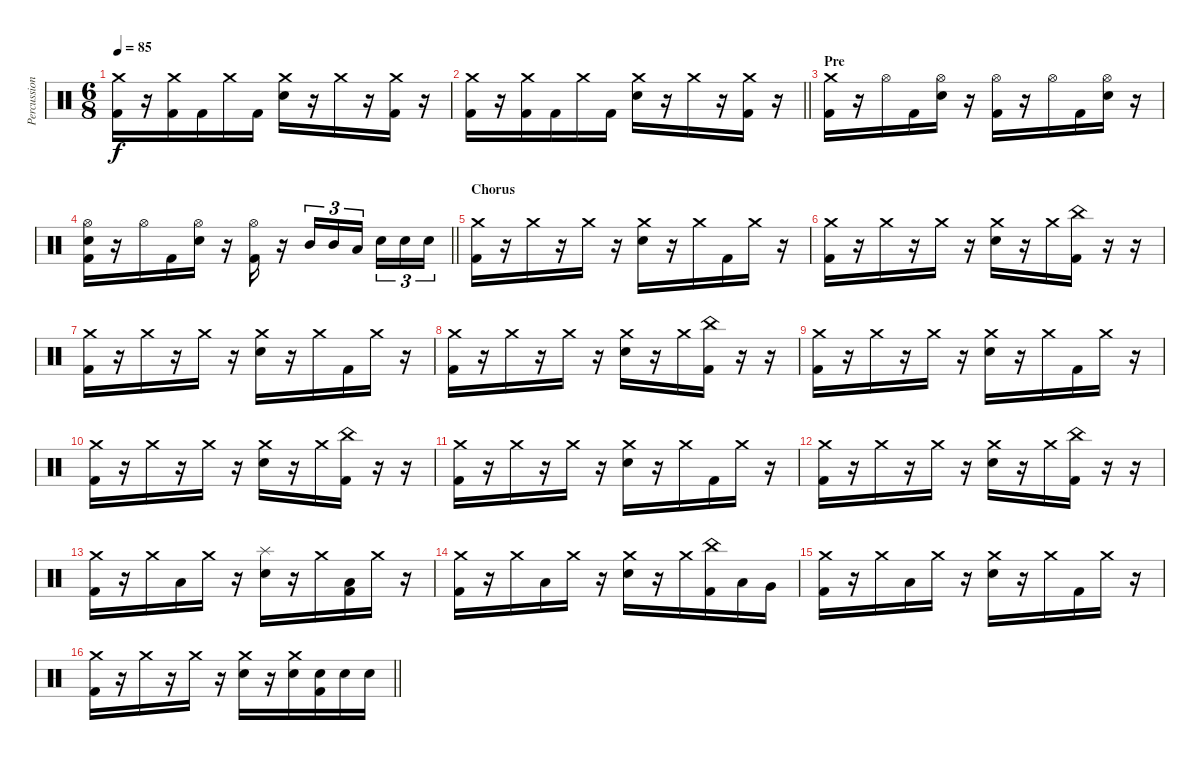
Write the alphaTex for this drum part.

\track ("Percussion" "Percussion") {instrument percussion}
\staff {score}
\articulation defaults
\ts (6 8)
\tempo 85
\clef neutral
\ks c
("Crash medium (hit)" "Kick (hit) 2").16{dy f} r.16 ("Crash medium (hit)" "Kick (hit) 2").16 "Kick (hit) 2".16 "Crash medium (hit)".16 "Kick (hit) 2".16 ("Crash medium (hit)" "Electric Snare (hit)").16 r.16 "Crash medium (hit)".16 r.16 ("Crash medium (hit)" "Kick (hit) 2").16 r.16 |
\barLineRight lightlight
("Crash medium (hit)" "Kick (hit) 2").16 r.16 ("Crash medium (hit)" "Kick (hit) 2").16 "Kick (hit) 2".16 "Crash medium (hit)".16 "Kick (hit) 2".16 ("Crash medium (hit)" "Electric Snare (hit)").16 r.16 "Crash medium (hit)".16 r.16 ("Crash medium (hit)" "Kick (hit) 2").16 r.16 |
\section ("" "Pre")
("Crash medium (hit)" "Kick (hit) 2").16 r.16 "Hi-Hat (open)".16 "Kick (hit) 2".16 ("Hi-Hat (open)" "Electric Snare (hit)").16 r.16 ("Hi-Hat (open)" "Kick (hit) 2").16 r.16 "Hi-Hat (open)".16 "Kick (hit) 2".16 ("Hi-Hat (open)" "Electric Snare (hit)").16 r.16 |
\barLineRight lightlight
("Hi-Hat (open)" "Electric Snare (hit)" "Kick (hit) 2").16 r.16 "Hi-Hat (open)".16 "Kick (hit) 2".16 ("Hi-Hat (open)" "Electric Snare (hit)").16 r.16 ("Hi-Hat (open)" "Kick (hit) 2").16 r.16 "Mid Tom (hit)".16{tu (3 2)} "Mid Tom (hit)".16{tu (3 2)} "Low Tom (hit)".16{tu (3 2) beam splitsecondary} "Electric Snare (hit)".16{tu (3 2)} "Electric Snare (hit)".16{tu (3 2)} "Electric Snare (hit)".16{tu (3 2)} |
\section ("" "Chorus")
("Crash medium (hit)" "Kick (hit) 2").16 r.16 "Crash medium (hit)".16 r.16 "Crash medium (hit)".16 r.16 ("Crash medium (hit)" "Electric Snare (hit)").16 r.16 "Crash medium (hit)".16 "Kick (hit) 2".16 "Crash medium (hit)".16 r.16 |
("Crash medium (hit)" "Kick (hit) 2").16 r.16 "Crash medium (hit)".16 r.16 "Crash medium (hit)".16 r.16 ("Crash medium (hit)" "Electric Snare (hit)").16 r.16 "Crash medium (hit)".16 ("China (hit)" "Kick (hit) 2").16 r.16 r.16 |
("Crash medium (hit)" "Kick (hit) 2").16 r.16 "Crash medium (hit)".16 r.16 "Crash medium (hit)".16 r.16 ("Crash medium (hit)" "Electric Snare (hit)").16 r.16 "Crash medium (hit)".16 "Kick (hit) 2".16 "Crash medium (hit)".16 r.16 |
("Crash medium (hit)" "Kick (hit) 2").16 r.16 "Crash medium (hit)".16 r.16 "Crash medium (hit)".16 r.16 ("Crash medium (hit)" "Electric Snare (hit)").16 r.16 "Crash medium (hit)".16 ("China (hit)" "Kick (hit) 2").16 r.16 r.16 |
("Crash medium (hit)" "Kick (hit) 2").16 r.16 "Crash medium (hit)".16 r.16 "Crash medium (hit)".16 r.16 ("Crash medium (hit)" "Electric Snare (hit)").16 r.16 "Crash medium (hit)".16 "Kick (hit) 2".16 "Crash medium (hit)".16 r.16 |
("Crash medium (hit)" "Kick (hit) 2").16 r.16 "Crash medium (hit)".16 r.16 "Crash medium (hit)".16 r.16 ("Crash medium (hit)" "Electric Snare (hit)").16 r.16 "Crash medium (hit)".16 ("China (hit)" "Kick (hit) 2").16 r.16 r.16 |
("Crash medium (hit)" "Kick (hit) 2").16 r.16 "Crash medium (hit)".16 r.16 "Crash medium (hit)".16 r.16 ("Crash medium (hit)" "Electric Snare (hit)").16 r.16 "Crash medium (hit)".16 "Kick (hit) 2".16 "Crash medium (hit)".16 r.16 |
("Crash medium (hit)" "Kick (hit) 2").16 r.16 "Crash medium (hit)".16 r.16 "Crash medium (hit)".16 r.16 ("Crash medium (hit)" "Electric Snare (hit)").16 r.16 "Crash medium (hit)".16 ("China (hit)" "Kick (hit) 2").16 r.16 r.16 |
("Crash medium (hit)" "Kick (hit) 2").16 r.16 "Crash medium (hit)".16 "Low Tom (hit)".16 "Crash medium (hit)".16 r.16 ("Splash (hit)" "Electric Snare (hit)").16 r.16 "Crash medium (hit)".16 ("Low Tom (hit)" "Kick (hit) 2").16 "Crash medium (hit)".16 r.16 |
("Crash medium (hit)" "Kick (hit) 2").16 r.16 "Crash medium (hit)".16 "Low Tom (hit)".16 "Crash medium (hit)".16 r.16 ("Crash medium (hit)" "Electric Snare (hit)").16 r.16 "Crash medium (hit)".16 ("China (hit)" "Kick (hit) 2").16 "Low Tom (hit)".16 "Very Low Tom (hit)".16 |
("Crash medium (hit)" "Kick (hit) 2").16 r.16 "Crash medium (hit)".16 "Low Tom (hit)".16 "Crash medium (hit)".16 r.16 ("Crash medium (hit)" "Electric Snare (hit)").16 r.16 "Crash medium (hit)".16 "Kick (hit) 2".16 "Crash medium (hit)".16 r.16 |
\barLineRight lightlight
("Crash medium (hit)" "Kick (hit) 2").16 r.16 "Crash medium (hit)".16 r.16 "Crash medium (hit)".16 r.16 ("Crash medium (hit)" "Electric Snare (hit)").16 r.16 ("Crash medium (hit)" "Electric Snare (hit)").16 ("Electric Snare (hit)" "Kick (hit) 2").16 "Electric Snare (hit)".16 "Electric Snare (hit)".16
